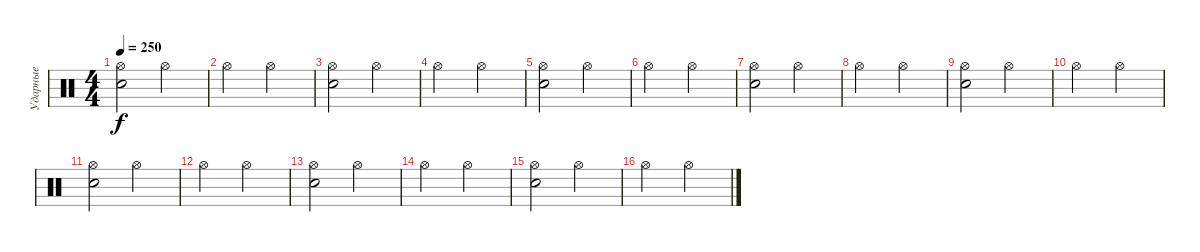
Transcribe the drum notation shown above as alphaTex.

\track ("Ударные" "Ударные") {instrument percussion}
\staff {score}
\articulation defaults
\ts (4 4)
\tempo 250
\clef neutral
\ks c
("Snare (hit) 2" "Hi-Hat (open)").2{dy f} "Hi-Hat (open)".2 |
"Hi-Hat (open)".2 "Hi-Hat (open)".2 |
("Snare (hit) 2" "Hi-Hat (open)").2 "Hi-Hat (open)".2 |
"Hi-Hat (open)".2 "Hi-Hat (open)".2 |
("Snare (hit) 2" "Hi-Hat (open)").2 "Hi-Hat (open)".2 |
"Hi-Hat (open)".2 "Hi-Hat (open)".2 |
("Snare (hit) 2" "Hi-Hat (open)").2 "Hi-Hat (open)".2 |
"Hi-Hat (open)".2 "Hi-Hat (open)".2 |
("Snare (hit) 2" "Hi-Hat (open)").2 "Hi-Hat (open)".2 |
"Hi-Hat (open)".2 "Hi-Hat (open)".2 |
("Snare (hit) 2" "Hi-Hat (open)").2 "Hi-Hat (open)".2 |
"Hi-Hat (open)".2 "Hi-Hat (open)".2 |
("Snare (hit) 2" "Hi-Hat (open)").2 "Hi-Hat (open)".2 |
"Hi-Hat (open)".2 "Hi-Hat (open)".2 |
("Snare (hit) 2" "Hi-Hat (open)").2 "Hi-Hat (open)".2 |
"Hi-Hat (open)".2 "Hi-Hat (open)".2
